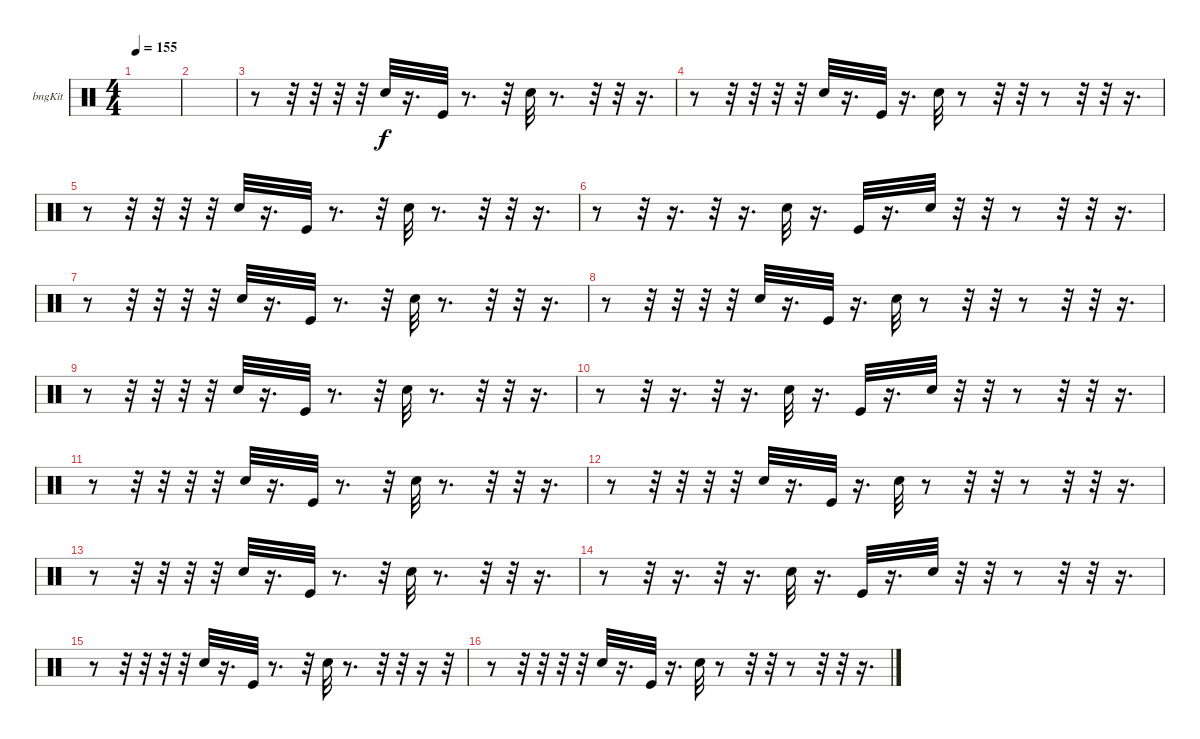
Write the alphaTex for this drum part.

\bracketExtendMode groupsimilarinstruments
\firstSystemTrackNameOrientation horizontal
\otherSystemsTrackNameOrientation horizontal
\track ("Е. Кулаков" "bngKit") {instrument percussion}
\staff {score}
\articulation defaults
\ts (4 4)
\tempo 155
\clef neutral
\ks c
|
|
r.8 r.32 r.32 r.32 r.32 "Snare (hit) 2".32 r.16{d} "Kick (hit)".32 r.8{d} r.32 "Snare (hit) 2".32 r.8{d} r.32 r.32 r.16{d} |
r.8 r.32 r.32 r.32 r.32 "Snare (hit) 2".32 r.16{d} "Kick (hit)".32 r.16{d} "Snare (hit) 2".32 r.8 r.32 r.32 r.8 r.32 r.32 r.16{d} |
r.8 r.32 r.32 r.32 r.32 "Snare (hit) 2".32 r.16{d} "Kick (hit)".32 r.8{d} r.32 "Snare (hit) 2".32 r.8{d} r.32 r.32 r.16{d} |
r.8 r.32 r.16{d} r.32 r.16{d} "Snare (hit) 2".32 r.16{d} "Kick (hit)".32 r.16{d} "Snare (hit) 2".32 r.32 r.32 r.8 r.32 r.32 r.16{d} |
r.8 r.32 r.32 r.32 r.32 "Snare (hit) 2".32 r.16{d} "Kick (hit)".32 r.8{d} r.32 "Snare (hit) 2".32 r.8{d} r.32 r.32 r.16{d} |
r.8 r.32 r.32 r.32 r.32 "Snare (hit) 2".32 r.16{d} "Kick (hit)".32 r.16{d} "Snare (hit) 2".32 r.8 r.32 r.32 r.8 r.32 r.32 r.16{d} |
r.8 r.32 r.32 r.32 r.32 "Snare (hit) 2".32 r.16{d} "Kick (hit)".32 r.8{d} r.32 "Snare (hit) 2".32 r.8{d} r.32 r.32 r.16{d} |
r.8 r.32 r.16{d} r.32 r.16{d} "Snare (hit) 2".32 r.16{d} "Kick (hit)".32 r.16{d} "Snare (hit) 2".32 r.32 r.32 r.8 r.32 r.32 r.16{d} |
r.8 r.32 r.32 r.32 r.32 "Snare (hit) 2".32 r.16{d} "Kick (hit)".32 r.8{d} r.32 "Snare (hit) 2".32 r.8{d} r.32 r.32 r.16{d} |
r.8 r.32 r.32 r.32 r.32 "Snare (hit) 2".32 r.16{d} "Kick (hit)".32 r.16{d} "Snare (hit) 2".32 r.8 r.32 r.32 r.8 r.32 r.32 r.16{d} |
r.8 r.32 r.32 r.32 r.32 "Snare (hit) 2".32 r.16{d} "Kick (hit)".32 r.8{d} r.32 "Snare (hit) 2".32 r.8{d} r.32 r.32 r.16{d} |
r.8 r.32 r.16{d} r.32 r.16{d} "Snare (hit) 2".32 r.16{d} "Kick (hit)".32 r.16{d} "Snare (hit) 2".32 r.32 r.32 r.8 r.32 r.32 r.16{d} |
r.8 r.32 r.32 r.32 r.32 "Snare (hit) 2".32 r.16{d} "Kick (hit)".32 r.8{d} r.32 "Snare (hit) 2".32 r.8{d} r.32 r.32 r.16 r.32 |
r.8 r.32 r.32 r.32 r.32 "Snare (hit) 2".32 r.16{d} "Kick (hit)".32 r.16{d} "Snare (hit) 2".32 r.8 r.32 r.32 r.8 r.32 r.32 r.16{d}
